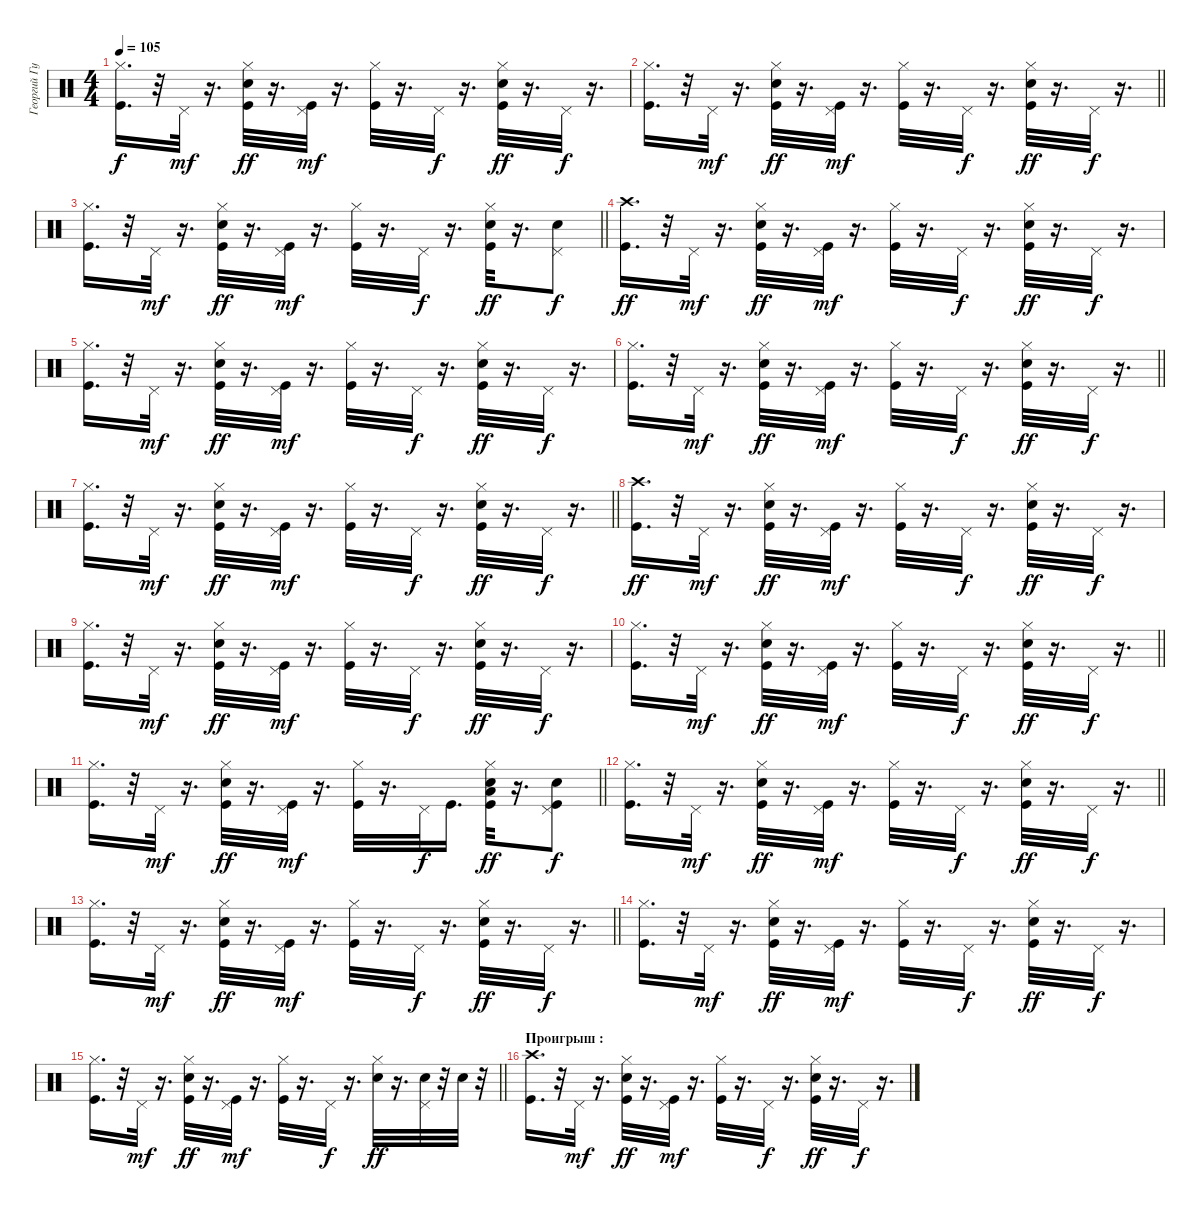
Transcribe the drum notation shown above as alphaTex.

\track ("Георгий Гурьянов" "Георгий Гу") {instrument percussion}
\staff {score}
\articulation defaults
\ts (4 4)
\tempo 105
\clef neutral
\ks c
("Hi-Hat (closed)" "Kick (hit)").16{d dy f} r.32 "Pedal Hi-Hat (hit)".32{dy mf} r.16{d} ("Hi-Hat (closed)" "Snare (hit) 2" "Kick (hit)").32{dy ff} r.16{d} ("Pedal Hi-Hat (hit)" "Kick (hit)").32{dy mf} r.16{d} ("Hi-Hat (closed)" "Kick (hit)").32 r.16{d} "Pedal Hi-Hat (hit)".32{dy f} r.16{d} ("Hi-Hat (closed)" "Snare (hit) 2" "Kick (hit)").32{dy ff} r.16{d} "Pedal Hi-Hat (hit)".32{dy f} r.16{d} |
\barLineRight lightlight
("Hi-Hat (closed)" "Kick (hit)").16{d} r.32 "Pedal Hi-Hat (hit)".32{dy mf} r.16{d} ("Hi-Hat (closed)" "Snare (hit) 2" "Kick (hit)").32{dy ff} r.16{d} ("Pedal Hi-Hat (hit)" "Kick (hit)").32{dy mf} r.16{d} ("Hi-Hat (closed)" "Kick (hit)").32 r.16{d} "Pedal Hi-Hat (hit)".32{dy f} r.16{d} ("Hi-Hat (closed)" "Snare (hit) 2" "Kick (hit)").32{dy ff} r.16{d} "Pedal Hi-Hat (hit)".32{dy f} r.16{d} |
\barLineRight lightlight
("Hi-Hat (closed)" "Kick (hit)").16{d} r.32 "Pedal Hi-Hat (hit)".32{dy mf} r.16{d} ("Hi-Hat (closed)" "Snare (hit) 2" "Kick (hit)").32{dy ff} r.16{d} ("Pedal Hi-Hat (hit)" "Kick (hit)").32{dy mf} r.16{d} ("Hi-Hat (closed)" "Kick (hit)").32 r.16{d} "Pedal Hi-Hat (hit)".32{dy f} r.16{d} ("Hi-Hat (closed)" "Snare (hit) 2" "Kick (hit)").32{dy ff} r.16{d} ("Pedal Hi-Hat (hit)" "Snare (hit) 2").8{dy f} |
("Crash high (hit)" "Kick (hit)").16{d dy ff} r.32 "Pedal Hi-Hat (hit)".32{dy mf} r.16{d} ("Hi-Hat (closed)" "Snare (hit) 2" "Kick (hit)").32{dy ff} r.16{d} ("Pedal Hi-Hat (hit)" "Kick (hit)").32{dy mf} r.16{d} ("Hi-Hat (closed)" "Kick (hit)").32 r.16{d} "Pedal Hi-Hat (hit)".32{dy f} r.16{d} ("Hi-Hat (closed)" "Snare (hit) 2" "Kick (hit)").32{dy ff} r.16{d} "Pedal Hi-Hat (hit)".32{dy f} r.16{d} |
("Hi-Hat (closed)" "Kick (hit)").16{d} r.32 "Pedal Hi-Hat (hit)".32{dy mf} r.16{d} ("Hi-Hat (closed)" "Snare (hit) 2" "Kick (hit)").32{dy ff} r.16{d} ("Pedal Hi-Hat (hit)" "Kick (hit)").32{dy mf} r.16{d} ("Hi-Hat (closed)" "Kick (hit)").32 r.16{d} "Pedal Hi-Hat (hit)".32{dy f} r.16{d} ("Hi-Hat (closed)" "Snare (hit) 2" "Kick (hit)").32{dy ff} r.16{d} "Pedal Hi-Hat (hit)".32{dy f} r.16{d} |
\barLineRight lightlight
("Hi-Hat (closed)" "Kick (hit)").16{d} r.32 "Pedal Hi-Hat (hit)".32{dy mf} r.16{d} ("Hi-Hat (closed)" "Snare (hit) 2" "Kick (hit)").32{dy ff} r.16{d} ("Pedal Hi-Hat (hit)" "Kick (hit)").32{dy mf} r.16{d} ("Hi-Hat (closed)" "Kick (hit)").32 r.16{d} "Pedal Hi-Hat (hit)".32{dy f} r.16{d} ("Hi-Hat (closed)" "Snare (hit) 2" "Kick (hit)").32{dy ff} r.16{d} "Pedal Hi-Hat (hit)".32{dy f} r.16{d} |
\barLineRight lightlight
("Hi-Hat (closed)" "Kick (hit)").16{d} r.32 "Pedal Hi-Hat (hit)".32{dy mf} r.16{d} ("Hi-Hat (closed)" "Snare (hit) 2" "Kick (hit)").32{dy ff} r.16{d} ("Pedal Hi-Hat (hit)" "Kick (hit)").32{dy mf} r.16{d} ("Hi-Hat (closed)" "Kick (hit)").32 r.16{d} "Pedal Hi-Hat (hit)".32{dy f} r.16{d} ("Hi-Hat (closed)" "Snare (hit) 2" "Kick (hit)").32{dy ff} r.16{d} "Pedal Hi-Hat (hit)".32{dy f} r.16{d} |
("Crash high (hit)" "Kick (hit)").16{d dy ff} r.32 "Pedal Hi-Hat (hit)".32{dy mf} r.16{d} ("Hi-Hat (closed)" "Snare (hit) 2" "Kick (hit)").32{dy ff} r.16{d} ("Pedal Hi-Hat (hit)" "Kick (hit)").32{dy mf} r.16{d} ("Hi-Hat (closed)" "Kick (hit)").32 r.16{d} "Pedal Hi-Hat (hit)".32{dy f} r.16{d} ("Hi-Hat (closed)" "Snare (hit) 2" "Kick (hit)").32{dy ff} r.16{d} "Pedal Hi-Hat (hit)".32{dy f} r.16{d} |
("Hi-Hat (closed)" "Kick (hit)").16{d} r.32 "Pedal Hi-Hat (hit)".32{dy mf} r.16{d} ("Hi-Hat (closed)" "Snare (hit) 2" "Kick (hit)").32{dy ff} r.16{d} ("Pedal Hi-Hat (hit)" "Kick (hit)").32{dy mf} r.16{d} ("Hi-Hat (closed)" "Kick (hit)").32 r.16{d} "Pedal Hi-Hat (hit)".32{dy f} r.16{d} ("Hi-Hat (closed)" "Snare (hit) 2" "Kick (hit)").32{dy ff} r.16{d} "Pedal Hi-Hat (hit)".32{dy f} r.16{d} |
\barLineRight lightlight
("Hi-Hat (closed)" "Kick (hit)").16{d} r.32 "Pedal Hi-Hat (hit)".32{dy mf} r.16{d} ("Hi-Hat (closed)" "Snare (hit) 2" "Kick (hit)").32{dy ff} r.16{d} ("Pedal Hi-Hat (hit)" "Kick (hit)").32{dy mf} r.16{d} ("Hi-Hat (closed)" "Kick (hit)").32 r.16{d} "Pedal Hi-Hat (hit)".32{dy f} r.16{d} ("Hi-Hat (closed)" "Snare (hit) 2" "Kick (hit)").32{dy ff} r.16{d} "Pedal Hi-Hat (hit)".32{dy f} r.16{d} |
\barLineRight lightlight
("Hi-Hat (closed)" "Kick (hit)").16{d} r.32 "Pedal Hi-Hat (hit)".32{dy mf} r.16{d} ("Hi-Hat (closed)" "Snare (hit) 2" "Kick (hit)").32{dy ff} r.16{d} ("Pedal Hi-Hat (hit)" "Kick (hit)").32{dy mf} r.16{d} ("Hi-Hat (closed)" "Kick (hit)").32 r.16{d} "Pedal Hi-Hat (hit)".32{dy f} "Kick (hit)".16{d} ("Hi-Hat (closed)" "Snare (hit) 2" "Low Tom (hit)" "Kick (hit)").32{dy ff} r.16{d} ("Pedal Hi-Hat (hit)" "Snare (hit) 2" "Kick (hit)").8{dy f} |
\barLineRight lightlight
("Hi-Hat (closed)" "Kick (hit)").16{d} r.32 "Pedal Hi-Hat (hit)".32{dy mf} r.16{d} ("Hi-Hat (closed)" "Snare (hit) 2" "Kick (hit)").32{dy ff} r.16{d} ("Pedal Hi-Hat (hit)" "Kick (hit)").32{dy mf} r.16{d} ("Hi-Hat (closed)" "Kick (hit)").32 r.16{d} "Pedal Hi-Hat (hit)".32{dy f} r.16{d} ("Hi-Hat (closed)" "Snare (hit) 2" "Kick (hit)").32{dy ff} r.16{d} "Pedal Hi-Hat (hit)".32{dy f} r.16{d} |
\barLineRight lightlight
("Hi-Hat (closed)" "Kick (hit)").16{d} r.32 "Pedal Hi-Hat (hit)".32{dy mf} r.16{d} ("Hi-Hat (closed)" "Snare (hit) 2" "Kick (hit)").32{dy ff} r.16{d} ("Pedal Hi-Hat (hit)" "Kick (hit)").32{dy mf} r.16{d} ("Hi-Hat (closed)" "Kick (hit)").32 r.16{d} "Pedal Hi-Hat (hit)".32{dy f} r.16{d} ("Hi-Hat (closed)" "Snare (hit) 2" "Kick (hit)").32{dy ff} r.16{d} "Pedal Hi-Hat (hit)".32{dy f} r.16{d} |
("Hi-Hat (closed)" "Kick (hit)").16{d} r.32 "Pedal Hi-Hat (hit)".32{dy mf} r.16{d} ("Hi-Hat (closed)" "Snare (hit) 2" "Kick (hit)").32{dy ff} r.16{d} ("Pedal Hi-Hat (hit)" "Kick (hit)").32{dy mf} r.16{d} ("Hi-Hat (closed)" "Kick (hit)").32 r.16{d} "Pedal Hi-Hat (hit)".32{dy f} r.16{d} ("Hi-Hat (closed)" "Snare (hit) 2" "Kick (hit)").32{dy ff} r.16{d} "Pedal Hi-Hat (hit)".32{dy f} r.16{d} |
\barLineRight lightlight
("Hi-Hat (closed)" "Kick (hit)").16{d} r.32 "Pedal Hi-Hat (hit)".32{dy mf} r.16{d} ("Hi-Hat (closed)" "Snare (hit) 2" "Kick (hit)").32{dy ff} r.16{d} ("Pedal Hi-Hat (hit)" "Kick (hit)").32{dy mf} r.16{d} ("Hi-Hat (closed)" "Kick (hit)").32 r.16{d} "Pedal Hi-Hat (hit)".32{dy f} r.16{d} ("Hi-Hat (closed)" "Snare (hit) 2").32{dy ff} r.16{d} ("Pedal Hi-Hat (hit)" "Snare (hit) 2").32 r.32 "Snare (hit) 2".32 r.32 |
\section ("" "Проигрыш :")
("Crash high (hit)" "Kick (hit)").16{d} r.32 "Pedal Hi-Hat (hit)".32{dy mf} r.16{d} ("Hi-Hat (closed)" "Snare (hit) 2" "Kick (hit)").32{dy ff} r.16{d} ("Pedal Hi-Hat (hit)" "Kick (hit)").32{dy mf} r.16{d} ("Hi-Hat (closed)" "Kick (hit)").32 r.16{d} "Pedal Hi-Hat (hit)".32{dy f} r.16{d} ("Hi-Hat (closed)" "Snare (hit) 2" "Kick (hit)").32{dy ff} r.16{d} "Pedal Hi-Hat (hit)".32{dy f} r.16{d}
